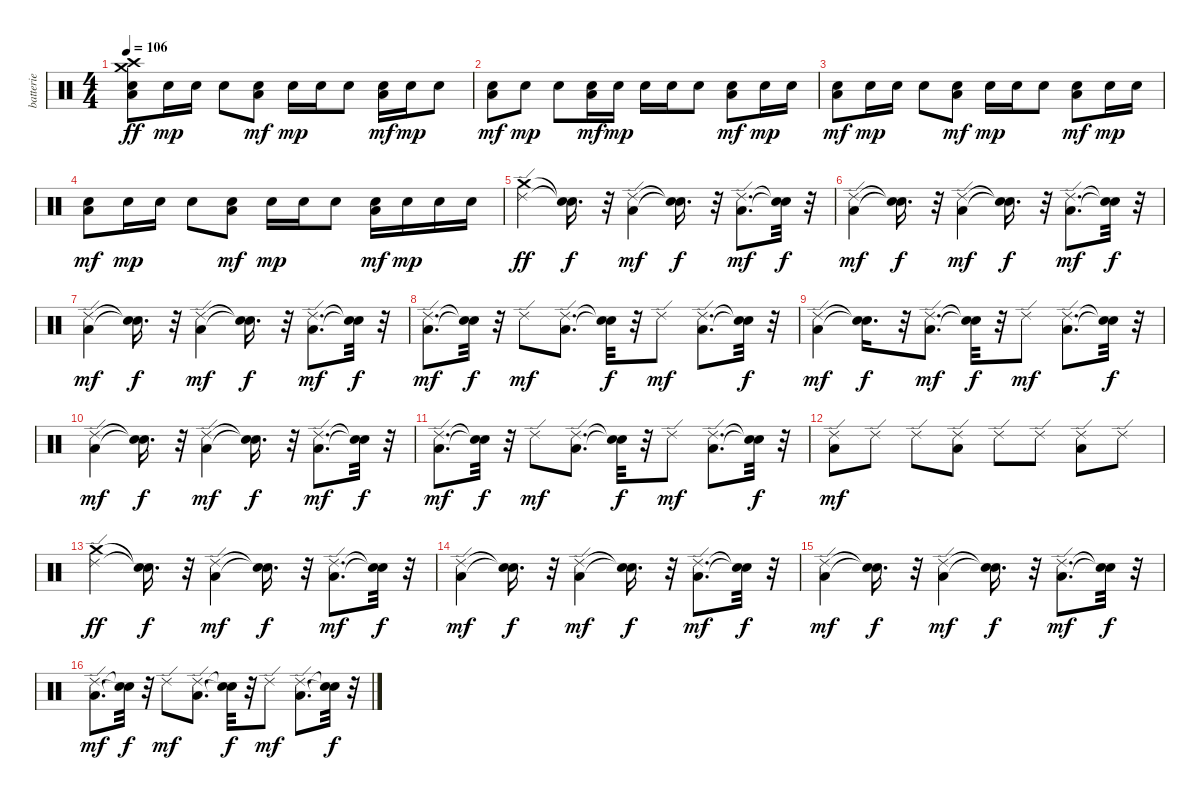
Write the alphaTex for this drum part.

\track ("batterie" "batterie") {instrument percussion}
\staff {score}
\articulation defaults
\ts (4 4)
\tempo 106
\clef neutral
\ks c
("Electric Snare (hit)" "Low Floor Tom (hit)" "Crash high (hit)" "Crash medium (hit)").8{dy ff} "Electric Snare (hit)".16{dy mp} "Electric Snare (hit)".16 "Electric Snare (hit)".8 ("Electric Snare (hit)" "Low Floor Tom (hit)").8{dy mf} "Electric Snare (hit)".16{dy mp} "Electric Snare (hit)".16 "Electric Snare (hit)".8 ("Electric Snare (hit)" "Low Floor Tom (hit)").16{dy mf} "Electric Snare (hit)".16{dy mp} "Electric Snare (hit)".8 |
("Electric Snare (hit)" "Low Floor Tom (hit)").8{dy mf} "Electric Snare (hit)".8{dy mp} "Electric Snare (hit)".8 ("Electric Snare (hit)" "Low Floor Tom (hit)").16{dy mf} "Electric Snare (hit)".16{dy mp} "Electric Snare (hit)".16 "Electric Snare (hit)".16 "Electric Snare (hit)".8 ("Electric Snare (hit)" "Low Floor Tom (hit)").8{dy mf} "Electric Snare (hit)".16{dy mp} "Electric Snare (hit)".16 |
("Electric Snare (hit)" "Low Floor Tom (hit)").8{dy mf} "Electric Snare (hit)".16{dy mp} "Electric Snare (hit)".16 "Electric Snare (hit)".8 ("Electric Snare (hit)" "Low Floor Tom (hit)").8{dy mf} "Electric Snare (hit)".16{dy mp} "Electric Snare (hit)".16 "Electric Snare (hit)".8 ("Electric Snare (hit)" "Low Floor Tom (hit)").8{dy mf} "Electric Snare (hit)".16{dy mp} "Electric Snare (hit)".16 |
("Electric Snare (hit)" "Low Floor Tom (hit)").8{dy mf} "Electric Snare (hit)".16{dy mp} "Electric Snare (hit)".16 "Electric Snare (hit)".8 ("Electric Snare (hit)" "Low Floor Tom (hit)").8{dy mf} "Electric Snare (hit)".16{dy mp} "Electric Snare (hit)".16 "Electric Snare (hit)".8 ("Electric Snare (hit)" "Low Floor Tom (hit)").16{dy mf} "Electric Snare (hit)".16{dy mp} "Electric Snare (hit)".16 "Electric Snare (hit)".16 |
("Crash medium (hit)" "Ride (edge) 2").4{dy ff} ("Snare (hit)"{t} "Snare (hit)"{t}).16{d dy f} r.32 ("Low Floor Tom (hit)" "Ride (edge) 2").4{dy mf} ("Snare (hit)"{t} "Snare (hit)"{t}).16{d dy f} r.32 ("Low Floor Tom (hit)" "Ride (edge) 2").8{d dy mf} ("Snare (hit)"{t} "Snare (hit)"{t}).32{dy f} r.32 |
("Low Floor Tom (hit)" "Ride (edge) 2").4{dy mf} ("Snare (hit)"{t} "Snare (hit)"{t}).16{d dy f} r.32 ("Low Floor Tom (hit)" "Ride (edge) 2").4{dy mf} ("Snare (hit)"{t} "Snare (hit)"{t}).16{d dy f} r.32 ("Low Floor Tom (hit)" "Ride (edge) 2").8{d dy mf} ("Snare (hit)"{t} "Snare (hit)"{t}).32{dy f} r.32 |
("Low Floor Tom (hit)" "Ride (edge) 2").4{dy mf} ("Snare (hit)"{t} "Snare (hit)"{t}).16{d dy f} r.32 ("Low Floor Tom (hit)" "Ride (edge) 2").4{dy mf} ("Snare (hit)"{t} "Snare (hit)"{t}).16{d dy f} r.32 ("Low Floor Tom (hit)" "Ride (edge) 2").8{d dy mf} ("Snare (hit)"{t} "Snare (hit)"{t}).32{dy f} r.32 |
("Low Floor Tom (hit)" "Ride (edge) 2").8{d dy mf} ("Snare (hit)"{t} "Snare (hit)"{t}).32{dy f} r.32 "Ride (edge) 2".8{dy mf} ("Low Floor Tom (hit)" "Ride (edge) 2").8{d} ("Snare (hit)"{t} "Snare (hit)"{t}).32{dy f} r.32 "Ride (edge) 2".8{dy mf} ("Low Floor Tom (hit)" "Ride (edge) 2").8{d} ("Snare (hit)"{t} "Snare (hit)"{t}).32{dy f} r.32 |
("Low Floor Tom (hit)" "Ride (edge) 2").4{dy mf} ("Snare (hit)"{t} "Snare (hit)"{t}).16{d dy f} r.32 ("Low Floor Tom (hit)" "Ride (edge) 2").8{d dy mf} ("Snare (hit)"{t} "Snare (hit)"{t}).32{dy f} r.32 "Ride (edge) 2".8{dy mf} ("Low Floor Tom (hit)" "Ride (edge) 2").8{d} ("Snare (hit)"{t} "Snare (hit)"{t}).32{dy f} r.32 |
("Low Floor Tom (hit)" "Ride (edge) 2").4{dy mf} ("Snare (hit)"{t} "Snare (hit)"{t}).16{d dy f} r.32 ("Low Floor Tom (hit)" "Ride (edge) 2").4{dy mf} ("Snare (hit)"{t} "Snare (hit)"{t}).16{d dy f} r.32 ("Low Floor Tom (hit)" "Ride (edge) 2").8{d dy mf} ("Snare (hit)"{t} "Snare (hit)"{t}).32{dy f} r.32 |
("Low Floor Tom (hit)" "Ride (edge) 2").8{d dy mf} ("Snare (hit)"{t} "Snare (hit)"{t}).32{dy f} r.32 "Ride (edge) 2".8{dy mf} ("Low Floor Tom (hit)" "Ride (edge) 2").8{d} ("Snare (hit)"{t} "Snare (hit)"{t}).32{dy f} r.32 "Ride (edge) 2".8{dy mf} ("Low Floor Tom (hit)" "Ride (edge) 2").8{d} ("Snare (hit)"{t} "Snare (hit)"{t}).32{dy f} r.32 |
("Low Floor Tom (hit)" "Ride (edge) 2").8{dy mf} "Ride (edge) 2".8 "Ride (edge) 2".8 ("Low Floor Tom (hit)" "Ride (edge) 2").8 "Ride (edge) 2".8 "Ride (edge) 2".8 ("Low Floor Tom (hit)" "Ride (edge) 2").8 "Ride (edge) 2".8 |
("Crash medium (hit)" "Ride (edge) 2").4{dy ff} ("Snare (hit)"{t} "Snare (hit)"{t}).16{d dy f} r.32 ("Low Floor Tom (hit)" "Ride (edge) 2").4{dy mf} ("Snare (hit)"{t} "Snare (hit)"{t}).16{d dy f} r.32 ("Low Floor Tom (hit)" "Ride (edge) 2").8{d dy mf} ("Snare (hit)"{t} "Snare (hit)"{t}).32{dy f} r.32 |
("Low Floor Tom (hit)" "Ride (edge) 2").4{dy mf} ("Snare (hit)"{t} "Snare (hit)"{t}).16{d dy f} r.32 ("Low Floor Tom (hit)" "Ride (edge) 2").4{dy mf} ("Snare (hit)"{t} "Snare (hit)"{t}).16{d dy f} r.32 ("Low Floor Tom (hit)" "Ride (edge) 2").8{d dy mf} ("Snare (hit)"{t} "Snare (hit)"{t}).32{dy f} r.32 |
("Low Floor Tom (hit)" "Ride (edge) 2").4{dy mf} ("Snare (hit)"{t} "Snare (hit)"{t}).16{d dy f} r.32 ("Low Floor Tom (hit)" "Ride (edge) 2").4{dy mf} ("Snare (hit)"{t} "Snare (hit)"{t}).16{d dy f} r.32 ("Low Floor Tom (hit)" "Ride (edge) 2").8{d dy mf} ("Snare (hit)"{t} "Snare (hit)"{t}).32{dy f} r.32 |
("Low Floor Tom (hit)" "Ride (edge) 2").8{d dy mf} ("Snare (hit)"{t} "Snare (hit)"{t}).32{dy f} r.32 "Ride (edge) 2".8{dy mf} ("Low Floor Tom (hit)" "Ride (edge) 2").8{d} ("Snare (hit)"{t} "Snare (hit)"{t}).32{dy f} r.32 "Ride (edge) 2".8{dy mf} ("Low Floor Tom (hit)" "Ride (edge) 2").8{d} ("Snare (hit)"{t} "Snare (hit)"{t}).32{dy f} r.32
